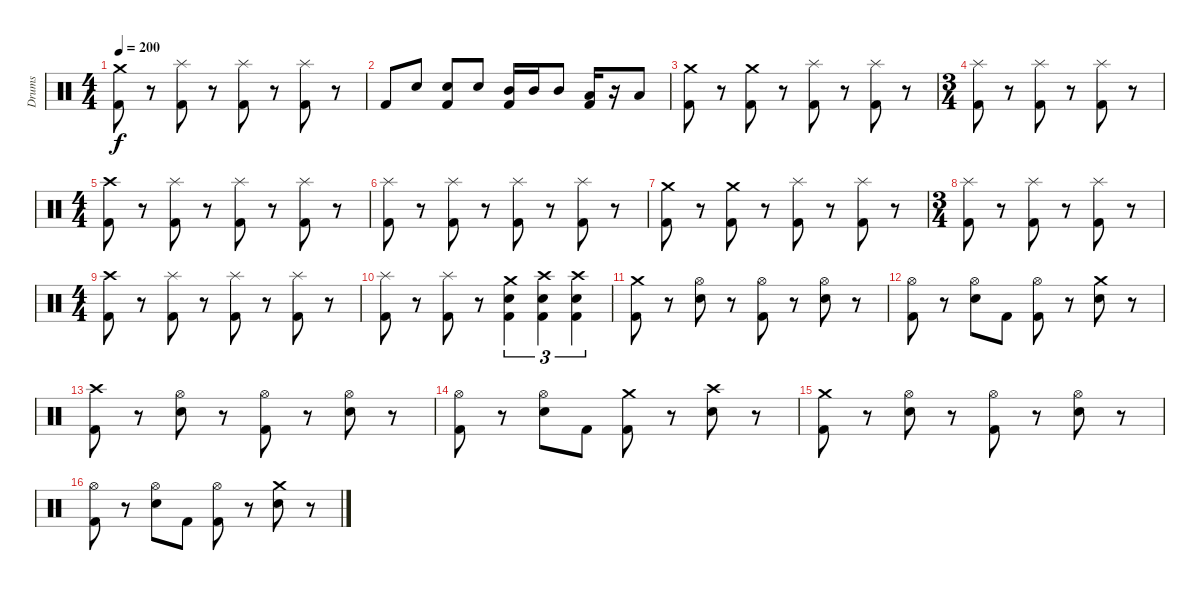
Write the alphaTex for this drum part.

\track ("Drums" "Drums") {instrument percussion}
\staff {score}
\articulation defaults
\ts (4 4)
\tempo 200
\clef neutral
\ks c
("Crash medium (hit)" "Kick (hit) 2").8{dy f} r.8 ("Splash (hit)" "Kick (hit) 2").8 r.8 ("Splash (hit)" "Kick (hit) 2").8 r.8 ("Splash (hit)" "Kick (hit) 2").8 r.8 |
"Kick (hit) 2".8 "Electric Snare (hit)".8 ("Electric Snare (hit)" "Kick (hit) 2").8 "Electric Snare (hit)".8 ("Mid Tom (hit)" "Kick (hit) 2").16 "Mid Tom (hit)".16 "Mid Tom (hit)".8 ("Low Tom (hit)" "Kick (hit) 2").16 r.16 "Low Tom (hit)".8 |
("Crash medium (hit)" "Kick (hit) 2").8 r.8 ("Crash medium (hit)" "Kick (hit) 2").8 r.8 ("Splash (hit)" "Kick (hit) 2").8 r.8 ("Splash (hit)" "Kick (hit) 2").8 r.8 |
\ts (3 4)
("Splash (hit)" "Kick (hit) 2").8 r.8 ("Splash (hit)" "Kick (hit) 2").8 r.8 ("Splash (hit)" "Kick (hit) 2").8 r.8 |
\ts (4 4)
("Crash high (hit)" "Kick (hit) 2").8 r.8 ("Splash (hit)" "Kick (hit) 2").8 r.8 ("Splash (hit)" "Kick (hit) 2").8 r.8 ("Splash (hit)" "Kick (hit) 2").8 r.8 |
("Splash (hit)" "Kick (hit) 2").8 r.8 ("Splash (hit)" "Kick (hit) 2").8 r.8 ("Splash (hit)" "Kick (hit) 2").8 r.8 ("Splash (hit)" "Kick (hit) 2").8 r.8 |
("Crash medium (hit)" "Kick (hit) 2").8 r.8 ("Crash medium (hit)" "Kick (hit) 2").8 r.8 ("Splash (hit)" "Kick (hit) 2").8 r.8 ("Splash (hit)" "Kick (hit) 2").8 r.8 |
\ts (3 4)
("Splash (hit)" "Kick (hit) 2").8 r.8 ("Splash (hit)" "Kick (hit) 2").8 r.8 ("Splash (hit)" "Kick (hit) 2").8 r.8 |
\ts (4 4)
("Crash high (hit)" "Kick (hit) 2").8 r.8 ("Splash (hit)" "Kick (hit) 2").8 r.8 ("Splash (hit)" "Kick (hit) 2").8 r.8 ("Splash (hit)" "Kick (hit) 2").8 r.8 |
("Splash (hit)" "Kick (hit) 2").8 r.8 ("Splash (hit)" "Kick (hit) 2").8 r.8 ("Crash medium (hit)" "Electric Snare (hit)" "Kick (hit) 2").4{tu (3 2)} ("Crash high (hit)" "Electric Snare (hit)" "Kick (hit) 2").4{tu (3 2)} ("Crash high (hit)" "Electric Snare (hit)" "Kick (hit) 2").4{tu (3 2)} |
("Crash medium (hit)" "Kick (hit) 2").8 r.8 ("Hi-Hat (open)" "Electric Snare (hit)").8 r.8 ("Hi-Hat (open)" "Kick (hit) 2").8 r.8 ("Hi-Hat (open)" "Electric Snare (hit)").8 r.8 |
("Hi-Hat (open)" "Kick (hit) 2").8 r.8 ("Hi-Hat (open)" "Electric Snare (hit)").8 "Kick (hit) 2".8 ("Hi-Hat (open)" "Kick (hit) 2").8 r.8 ("Crash medium (hit)" "Electric Snare (hit)").8 r.8 |
("Crash high (hit)" "Kick (hit) 2").8 r.8 ("Hi-Hat (open)" "Electric Snare (hit)").8 r.8 ("Hi-Hat (open)" "Kick (hit) 2").8 r.8 ("Hi-Hat (open)" "Electric Snare (hit)").8 r.8 |
("Hi-Hat (open)" "Kick (hit) 2").8 r.8 ("Hi-Hat (open)" "Electric Snare (hit)").8 "Kick (hit) 2".8 ("Crash medium (hit)" "Kick (hit) 2").8 r.8 ("Crash high (hit)" "Electric Snare (hit)").8 r.8 |
("Crash medium (hit)" "Kick (hit) 2").8 r.8 ("Hi-Hat (open)" "Electric Snare (hit)").8 r.8 ("Hi-Hat (open)" "Kick (hit) 2").8 r.8 ("Hi-Hat (open)" "Electric Snare (hit)").8 r.8 |
("Hi-Hat (open)" "Kick (hit) 2").8 r.8 ("Hi-Hat (open)" "Electric Snare (hit)").8 "Kick (hit) 2".8 ("Hi-Hat (open)" "Kick (hit) 2").8 r.8 ("Crash medium (hit)" "Electric Snare (hit)").8 r.8
